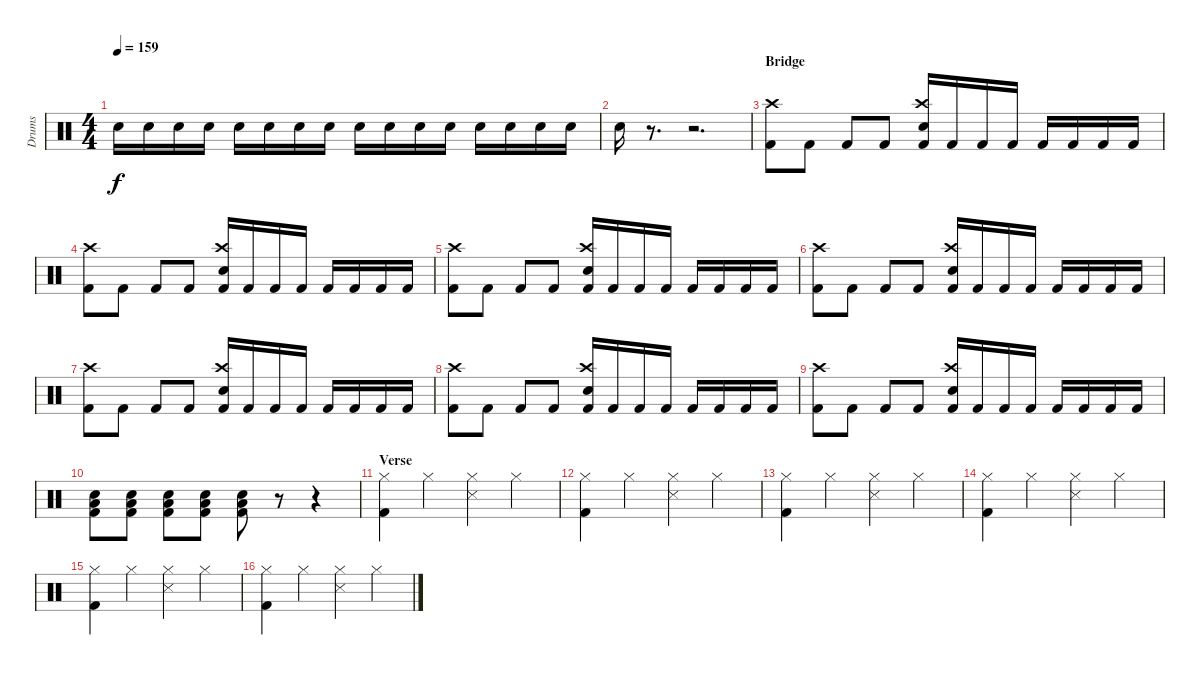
\track ("Drums" "Drums") {instrument percussion}
\staff {score}
\articulation defaults
\ts (4 4)
\tempo 159
\clef neutral
\ks c "Electric Snare (hit)".16{dy f} "Electric Snare (hit)".16 "Electric Snare (hit)".16 "Electric Snare (hit)".16 "Electric Snare (hit)".16 "Electric Snare (hit)".16 "Electric Snare (hit)".16 "Electric Snare (hit)".16 "Electric Snare (hit)".16 "Electric Snare (hit)".16 "Electric Snare (hit)".16 "Electric Snare (hit)".16 "Electric Snare (hit)".16 "Electric Snare (hit)".16 "Electric Snare (hit)".16 "Electric Snare (hit)".16
|
"Electric Snare (hit)".16 r.8{d} r.2{d} |
\section ("" "Bridge")
("Crash high (hit)" "Kick (hit) 2").8 "Kick (hit) 2".8 "Kick (hit) 2".8 "Kick (hit) 2".8 ("Crash high (hit)" "Electric Snare (hit)" "Kick (hit) 2").16 "Kick (hit) 2".16 "Kick (hit) 2".16 "Kick (hit) 2".16 "Kick (hit) 2".16 "Kick (hit) 2".16 "Kick (hit) 2".16 "Kick (hit) 2".16 |
("Crash high (hit)" "Kick (hit) 2").8 "Kick (hit) 2".8 "Kick (hit) 2".8 "Kick (hit) 2".8 ("Crash high (hit)" "Electric Snare (hit)" "Kick (hit) 2").16 "Kick (hit) 2".16 "Kick (hit) 2".16 "Kick (hit) 2".16 "Kick (hit) 2".16 "Kick (hit) 2".16 "Kick (hit) 2".16 "Kick (hit) 2".16 |
("Crash high (hit)" "Kick (hit) 2").8 "Kick (hit) 2".8 "Kick (hit) 2".8 "Kick (hit) 2".8 ("Crash high (hit)" "Electric Snare (hit)" "Kick (hit) 2").16 "Kick (hit) 2".16 "Kick (hit) 2".16 "Kick (hit) 2".16 "Kick (hit) 2".16 "Kick (hit) 2".16 "Kick (hit) 2".16 "Kick (hit) 2".16 |
("Crash high (hit)" "Kick (hit) 2").8 "Kick (hit) 2".8 "Kick (hit) 2".8 "Kick (hit) 2".8 ("Crash high (hit)" "Electric Snare (hit)" "Kick (hit) 2").16 "Kick (hit) 2".16 "Kick (hit) 2".16 "Kick (hit) 2".16 "Kick (hit) 2".16 "Kick (hit) 2".16 "Kick (hit) 2".16 "Kick (hit) 2".16 |
("Crash high (hit)" "Kick (hit) 2").8 "Kick (hit) 2".8 "Kick (hit) 2".8 "Kick (hit) 2".8 ("Crash high (hit)" "Electric Snare (hit)" "Kick (hit) 2").16 "Kick (hit) 2".16 "Kick (hit) 2".16 "Kick (hit) 2".16 "Kick (hit) 2".16 "Kick (hit) 2".16 "Kick (hit) 2".16 "Kick (hit) 2".16 |
("Crash high (hit)" "Kick (hit) 2").8 "Kick (hit) 2".8 "Kick (hit) 2".8 "Kick (hit) 2".8 ("Crash high (hit)" "Electric Snare (hit)" "Kick (hit) 2").16 "Kick (hit) 2".16 "Kick (hit) 2".16 "Kick (hit) 2".16 "Kick (hit) 2".16 "Kick (hit) 2".16 "Kick (hit) 2".16 "Kick (hit) 2".16 |
("Crash high (hit)" "Kick (hit) 2").8 "Kick (hit) 2".8 "Kick (hit) 2".8 "Kick (hit) 2".8 ("Crash high (hit)" "Electric Snare (hit)" "Kick (hit) 2").16 "Kick (hit) 2".16 "Kick (hit) 2".16 "Kick (hit) 2".16 "Kick (hit) 2".16 "Kick (hit) 2".16 "Kick (hit) 2".16 "Kick (hit) 2".16 |
("Electric Snare (hit)" "Low Floor Tom (hit)" "Kick (hit) 2").8 ("Electric Snare (hit)" "Low Floor Tom (hit)" "Kick (hit) 2").8 ("Electric Snare (hit)" "Low Floor Tom (hit)" "Kick (hit) 2").8 ("Electric Snare (hit)" "Low Floor Tom (hit)" "Kick (hit) 2").8 ("Electric Snare (hit)" "Low Floor Tom (hit)" "Kick (hit) 2").8 r.8 r.4 |
\section ("" "Verse")
("Hi-Hat (closed)" "Kick (hit) 2").4 "Hi-Hat (closed)".4 ("Hi-Hat (closed)" "Snare (side stick) 3").4 "Hi-Hat (closed)".4 |
("Hi-Hat (closed)" "Kick (hit) 2").4 "Hi-Hat (closed)".4 ("Hi-Hat (closed)" "Snare (side stick) 3").4 "Hi-Hat (closed)".4 |
("Hi-Hat (closed)" "Kick (hit) 2").4 "Hi-Hat (closed)".4 ("Hi-Hat (closed)" "Snare (side stick) 3").4 "Hi-Hat (closed)".4 |
("Hi-Hat (closed)" "Kick (hit) 2").4 "Hi-Hat (closed)".4 ("Hi-Hat (closed)" "Snare (side stick) 3").4 "Hi-Hat (closed)".4 |
("Hi-Hat (closed)" "Kick (hit) 2").4 "Hi-Hat (closed)".4 ("Hi-Hat (closed)" "Snare (side stick) 3").4 "Hi-Hat (closed)".4 |
("Hi-Hat (closed)" "Kick (hit) 2").4 "Hi-Hat (closed)".4 ("Hi-Hat (closed)" "Snare (side stick) 3").4 "Hi-Hat (closed)".4
